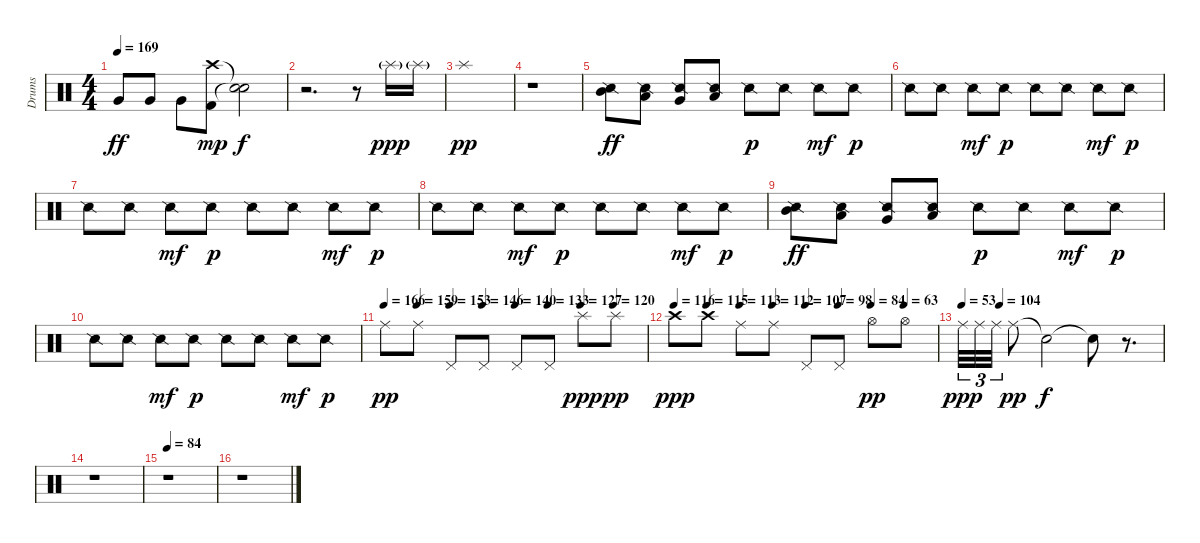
\track ("Drums" "Drums") {instrument percussion}
\staff {score}
\articulation defaults
\ts (4 4)
\tempo 169
\clef neutral
\ks c "Very Low Tom (hit)".8{dy ff} "Very Low Tom (hit)".8 "Very Low Tom (hit)".8
("Kick (hit) 2" "Crash high (hit)").8{dy mp} ("Snare (hit)"{t} "Snare (hit)"{t}).2{dy f} |
r.2{d} r.8 "Splash (hit)"{g}.16{dy ppp} "Splash (hit)"{g}.16 |
"Splash (hit)".1{dy pp} |
r.1 |
("Snare (side stick) 2" "Mid Tom (hit)").8{dy ff} ("Snare (side stick) 2" "Low Tom (hit)").8 ("Snare (side stick) 2" "Very Low Tom (hit)").8 ("Snare (side stick) 2" "Low Floor Tom (hit)").8 "Snare (side stick) 2".8{dy p} "Snare (side stick) 2".8 "Snare (side stick) 2".8{dy mf} "Snare (side stick) 2".8{dy p} |
"Snare (side stick) 2".8 "Snare (side stick) 2".8 "Snare (side stick) 2".8{dy mf} "Snare (side stick) 2".8{dy p} "Snare (side stick) 2".8 "Snare (side stick) 2".8 "Snare (side stick) 2".8{dy mf} "Snare (side stick) 2".8{dy p} |
"Snare (side stick) 2".8 "Snare (side stick) 2".8 "Snare (side stick) 2".8{dy mf} "Snare (side stick) 2".8{dy p} "Snare (side stick) 2".8 "Snare (side stick) 2".8 "Snare (side stick) 2".8{dy mf} "Snare (side stick) 2".8{dy p} |
"Snare (side stick) 2".8 "Snare (side stick) 2".8 "Snare (side stick) 2".8{dy mf} "Snare (side stick) 2".8{dy p} "Snare (side stick) 2".8 "Snare (side stick) 2".8 "Snare (side stick) 2".8{dy mf} "Snare (side stick) 2".8{dy p} |
("Snare (side stick) 2" "Mid Tom (hit)").8{dy ff} ("Snare (side stick) 2" "Low Tom (hit)").8 ("Snare (side stick) 2" "Very Low Tom (hit)").8 ("Snare (side stick) 2" "Low Floor Tom (hit)").8 "Snare (side stick) 2".8{dy p} "Snare (side stick) 2".8 "Snare (side stick) 2".8{dy mf} "Snare (side stick) 2".8{dy p} |
"Snare (side stick) 2".8 "Snare (side stick) 2".8 "Snare (side stick) 2".8{dy mf} "Snare (side stick) 2".8{dy p} "Snare (side stick) 2".8 "Snare (side stick) 2".8 "Snare (side stick) 2".8{dy mf} "Snare (side stick) 2".8{dy p} |
\tempo 166
\tempo (159 0.125)
\tempo (153 0.25)
\tempo (146 0.375)
\tempo (140 0.5)
\tempo (133 0.625)
\tempo (127 0.75)
\tempo (120 0.875)
"Ride (middle)".8{dy pp} "Ride (middle)".8 "Pedal Hi-Hat (hit)".8 "Pedal Hi-Hat (hit)".8 "Pedal Hi-Hat (hit)".8 "Pedal Hi-Hat (hit)".8 "Splash (hit)".8{dy ppp} "Splash (hit)".8{dy pp} |
\tempo 116
\tempo (115 0.125)
\tempo (113 0.25)
\tempo (112 0.375)
\tempo (107 0.5)
\tempo (98 0.625)
\tempo (84 0.75)
\tempo (63 0.875)
"Crash high (hit)".8{dy ppp} "Crash high (hit)".8 "Ride (middle)".8 "Ride (middle)".8 "Pedal Hi-Hat (hit)".8 "Pedal Hi-Hat (hit)".8 "Hi-Hat (open)".8{dy pp} "Hi-Hat (open)".8 |
\tempo 53
\tempo (104 0.1875)
"Ride (middle)".32{tu (3 2) dy ppp} "Ride (middle)".32{tu (3 2)} "Ride (middle)".32{tu (3 2)} "Ride (middle)".8{dy pp} "Snare (hit)"{t}.2{dy f} "Snare (hit)"{t}.8 r.8{d} |
r.1 |
\tempo 84
r.1 |
r.1
